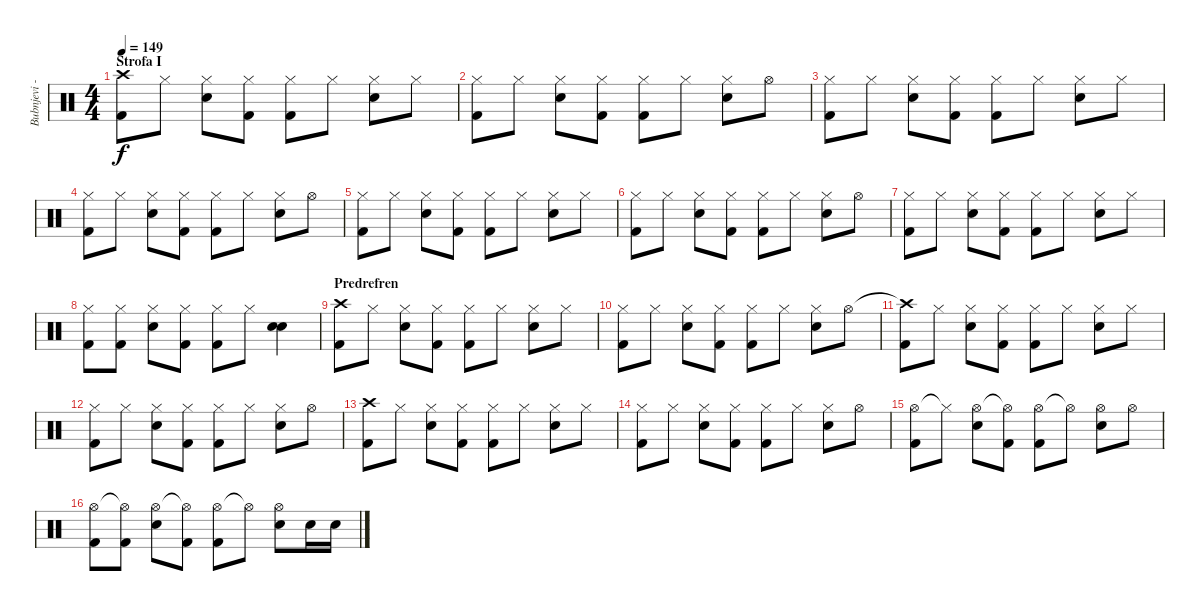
\track ("Bubnjevi - Vladan Cvetkovic" "Bubnjevi -") {instrument percussion}
\staff {score}
\articulation defaults
\ts (4 4)
\section ("" "Strofa I")
\tempo 149
\clef neutral
\ks c
("Crash high (hit)" "Kick (hit) 2").8{dy f} "Hi-Hat (closed)".8 ("Hi-Hat (closed)" "Electric Snare (hit)").8 ("Hi-Hat (closed)" "Kick (hit) 2").8 ("Hi-Hat (closed)" "Kick (hit) 2").8 "Hi-Hat (closed)".8 ("Hi-Hat (closed)" "Electric Snare (hit)").8 "Hi-Hat (closed)".8 |
("Hi-Hat (closed)" "Kick (hit) 2").8 "Hi-Hat (closed)".8 ("Hi-Hat (closed)" "Electric Snare (hit)").8 ("Hi-Hat (closed)" "Kick (hit) 2").8 ("Hi-Hat (closed)" "Kick (hit) 2").8 "Hi-Hat (closed)".8 ("Hi-Hat (closed)" "Electric Snare (hit)").8 "Hi-Hat (open)".8 |
("Hi-Hat (closed)" "Kick (hit) 2").8 "Hi-Hat (closed)".8 ("Hi-Hat (closed)" "Electric Snare (hit)").8 ("Hi-Hat (closed)" "Kick (hit) 2").8 ("Hi-Hat (closed)" "Kick (hit) 2").8 "Hi-Hat (closed)".8 ("Hi-Hat (closed)" "Electric Snare (hit)").8 "Hi-Hat (closed)".8 |
("Hi-Hat (closed)" "Kick (hit) 2").8 "Hi-Hat (closed)".8 ("Hi-Hat (closed)" "Electric Snare (hit)").8 ("Hi-Hat (closed)" "Kick (hit) 2").8 ("Hi-Hat (closed)" "Kick (hit) 2").8 "Hi-Hat (closed)".8 ("Hi-Hat (closed)" "Electric Snare (hit)").8 "Hi-Hat (open)".8 |
("Hi-Hat (closed)" "Kick (hit) 2").8 "Hi-Hat (closed)".8 ("Hi-Hat (closed)" "Electric Snare (hit)").8 ("Hi-Hat (closed)" "Kick (hit) 2").8 ("Hi-Hat (closed)" "Kick (hit) 2").8 "Hi-Hat (closed)".8 ("Hi-Hat (closed)" "Electric Snare (hit)").8 "Hi-Hat (closed)".8 |
("Hi-Hat (closed)" "Kick (hit) 2").8 "Hi-Hat (closed)".8 ("Hi-Hat (closed)" "Electric Snare (hit)").8 ("Hi-Hat (closed)" "Kick (hit) 2").8 ("Hi-Hat (closed)" "Kick (hit) 2").8 "Hi-Hat (closed)".8 ("Hi-Hat (closed)" "Electric Snare (hit)").8 "Hi-Hat (open)".8 |
("Hi-Hat (closed)" "Kick (hit) 2").8 "Hi-Hat (closed)".8 ("Hi-Hat (closed)" "Electric Snare (hit)").8 ("Hi-Hat (closed)" "Kick (hit) 2").8 ("Hi-Hat (closed)" "Kick (hit) 2").8 "Hi-Hat (closed)".8 ("Hi-Hat (closed)" "Electric Snare (hit)").8 "Hi-Hat (closed)".8 |
("Hi-Hat (closed)" "Kick (hit) 2").8 ("Hi-Hat (closed)" "Kick (hit) 2").8 ("Hi-Hat (closed)" "Electric Snare (hit)").8 ("Hi-Hat (closed)" "Kick (hit) 2").8 ("Hi-Hat (closed)" "Kick (hit) 2").8 "Hi-Hat (closed)".8 ("Electric Snare (hit)" "Electric Snare (hit)").4{bd 240} |
\section ("" "Predrefren")
("Crash high (hit)" "Kick (hit) 2").8 "Hi-Hat (closed)".8 ("Hi-Hat (closed)" "Electric Snare (hit)").8 ("Hi-Hat (closed)" "Kick (hit) 2").8 ("Hi-Hat (closed)" "Kick (hit) 2").8 "Hi-Hat (closed)".8 ("Hi-Hat (closed)" "Electric Snare (hit)").8 "Hi-Hat (closed)".8 |
("Hi-Hat (closed)" "Kick (hit) 2").8 "Hi-Hat (closed)".8 ("Hi-Hat (closed)" "Electric Snare (hit)").8 ("Hi-Hat (closed)" "Kick (hit) 2").8 ("Hi-Hat (closed)" "Kick (hit) 2").8 "Hi-Hat (closed)".8 ("Hi-Hat (closed)" "Electric Snare (hit)").8 "Hi-Hat (open)".8 |
("Crash high (hit)"{t} "Kick (hit) 2").8 "Hi-Hat (closed)".8 ("Hi-Hat (closed)" "Electric Snare (hit)").8 ("Hi-Hat (closed)" "Kick (hit) 2").8 ("Hi-Hat (closed)" "Kick (hit) 2").8 "Hi-Hat (closed)".8 ("Hi-Hat (closed)" "Electric Snare (hit)").8 "Hi-Hat (closed)".8 |
("Hi-Hat (closed)" "Kick (hit) 2").8 "Hi-Hat (closed)".8 ("Hi-Hat (closed)" "Electric Snare (hit)").8 ("Hi-Hat (closed)" "Kick (hit) 2").8 ("Hi-Hat (closed)" "Kick (hit) 2").8 "Hi-Hat (closed)".8 ("Hi-Hat (closed)" "Electric Snare (hit)").8 "Hi-Hat (open)".8 |
("Crash high (hit)" "Kick (hit) 2").8 "Hi-Hat (closed)".8 ("Hi-Hat (closed)" "Electric Snare (hit)").8 ("Hi-Hat (closed)" "Kick (hit) 2").8 ("Hi-Hat (closed)" "Kick (hit) 2").8 "Hi-Hat (closed)".8 ("Hi-Hat (closed)" "Electric Snare (hit)").8 "Hi-Hat (closed)".8 |
("Hi-Hat (closed)" "Kick (hit) 2").8 "Hi-Hat (closed)".8 ("Hi-Hat (closed)" "Electric Snare (hit)").8 ("Hi-Hat (closed)" "Kick (hit) 2").8 ("Hi-Hat (closed)" "Kick (hit) 2").8 "Hi-Hat (closed)".8 ("Hi-Hat (closed)" "Electric Snare (hit)").8 "Hi-Hat (open)".8 |
("Hi-Hat (open)" "Kick (hit) 2").8 "Hi-Hat (closed)"{t}.8 ("Hi-Hat (open)" "Electric Snare (hit)").8 ("Hi-Hat (open)"{t} "Kick (hit) 2").8 ("Hi-Hat (open)" "Kick (hit) 2").8 "Hi-Hat (open)"{t}.8 ("Hi-Hat (open)" "Electric Snare (hit)").8 "Hi-Hat (open)".8 |
("Hi-Hat (open)" "Kick (hit) 2").8 ("Hi-Hat (open)"{t} "Kick (hit) 2").8 ("Hi-Hat (open)" "Electric Snare (hit)").8 ("Hi-Hat (open)"{t} "Kick (hit) 2").8 ("Hi-Hat (open)" "Kick (hit) 2").8 "Hi-Hat (open)"{t}.8 ("Hi-Hat (open)" "Electric Snare (hit)").8 "Electric Snare (hit)".16 "Electric Snare (hit)".16
